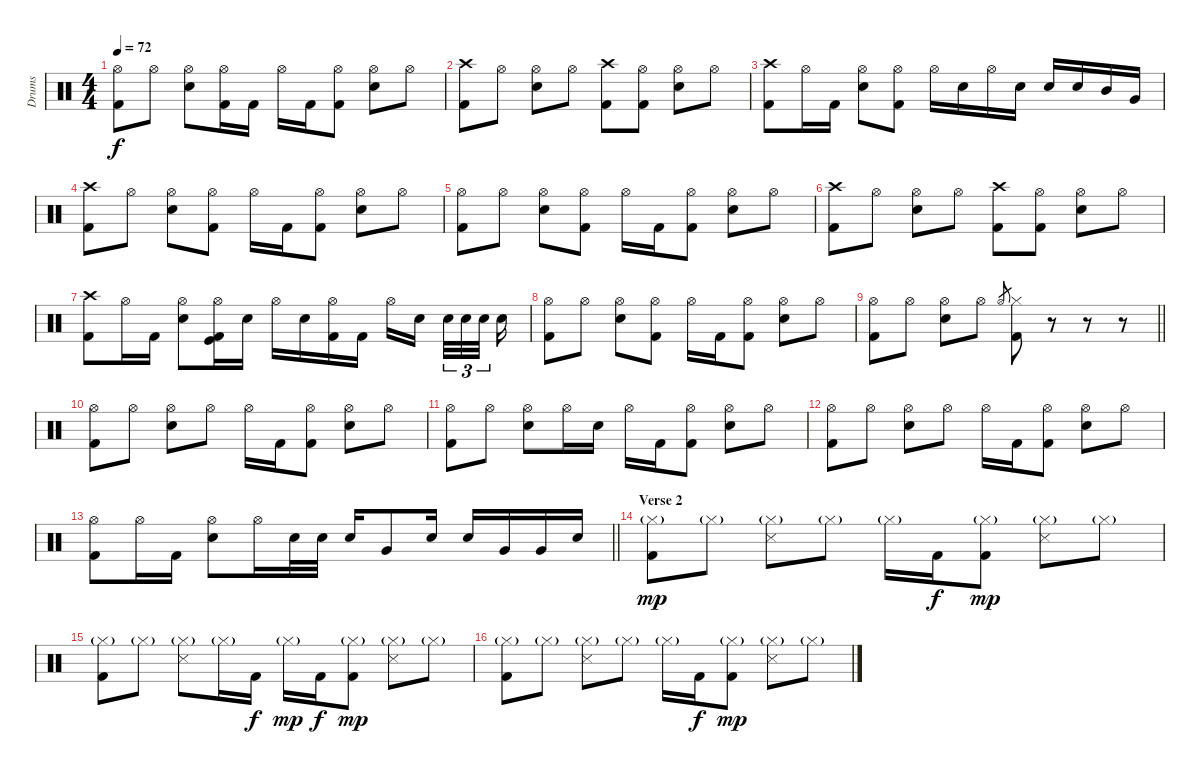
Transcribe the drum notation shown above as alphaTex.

\track ("Drums" "Drums") {instrument percussion}
\staff {score}
\articulation defaults
\ts (4 4)
\tempo 72
\clef neutral
\ks c
("Hi-Hat (open)" "Kick (hit) 2").8{dy f} "Hi-Hat (open)".8 ("Hi-Hat (open)" "Snare (hit) 2").8 ("Hi-Hat (open)" "Kick (hit) 2").16 "Kick (hit) 2".16 "Hi-Hat (open)".16 "Kick (hit) 2".16 ("Hi-Hat (open)" "Kick (hit) 2").8 ("Hi-Hat (open)" "Snare (hit) 2").8 "Hi-Hat (open)".8 |
("Crash high (hit)" "Kick (hit) 2").8 "Hi-Hat (open)".8 ("Hi-Hat (open)" "Snare (hit) 2").8 "Hi-Hat (open)".8 ("Crash high (hit)" "Kick (hit) 2").8 ("Hi-Hat (open)" "Kick (hit) 2").8 ("Hi-Hat (open)" "Snare (hit) 2").8 "Hi-Hat (open)".8 |
("Crash high (hit)" "Kick (hit) 2").8 "Hi-Hat (open)".16 "Kick (hit) 2".16 ("Hi-Hat (open)" "Snare (hit) 2").8 ("Hi-Hat (open)" "Kick (hit) 2").8 "Hi-Hat (open)".16 "Snare (hit) 2".16 "Hi-Hat (open)".16 "Snare (hit) 2".16 "Snare (hit) 2".16 "Snare (hit) 2".16 "Mid Tom (hit)".16 "Very Low Tom (hit)".16 |
("Crash high (hit)" "Kick (hit) 2").8 "Hi-Hat (open)".8 ("Hi-Hat (open)" "Snare (hit) 2").8 ("Hi-Hat (open)" "Kick (hit) 2").8 "Hi-Hat (open)".16 "Kick (hit) 2".16 ("Hi-Hat (open)" "Kick (hit) 2").8 ("Hi-Hat (open)" "Snare (hit) 2").8 "Hi-Hat (open)".8 |
("Hi-Hat (open)" "Kick (hit) 2").8 "Hi-Hat (open)".8 ("Hi-Hat (open)" "Snare (hit) 2").8 ("Hi-Hat (open)" "Kick (hit) 2").8 "Hi-Hat (open)".16 "Kick (hit) 2".16 ("Hi-Hat (open)" "Kick (hit) 2").8 ("Hi-Hat (open)" "Snare (hit) 2").8 "Hi-Hat (open)".8 |
("Crash high (hit)" "Kick (hit) 2").8 "Hi-Hat (open)".8 ("Hi-Hat (open)" "Snare (hit) 2").8 "Hi-Hat (open)".8 ("Crash high (hit)" "Kick (hit) 2").8 ("Hi-Hat (open)" "Kick (hit) 2").8 ("Hi-Hat (open)" "Snare (hit) 2").8 "Hi-Hat (open)".8 |
("Crash high (hit)" "Kick (hit) 2").8 "Hi-Hat (open)".16 "Kick (hit) 2".16 ("Hi-Hat (open)" "Snare (hit) 2").8 ("Hi-Hat (open)" "Kick (hit)" "Kick (hit) 2").16 "Snare (hit) 2".16 "Hi-Hat (open)".16 "Snare (hit) 2".16 ("Hi-Hat (open)" "Kick (hit) 2").16 "Kick (hit) 2".16 "Hi-Hat (open)".16 "Snare (hit) 2".16{beam splitsecondary} "Snare (hit) 2".32{tu (3 2)} "Snare (hit) 2".32{tu (3 2)} "Snare (hit) 2".32{tu (3 2) beam splitsecondary} "Snare (hit) 2".16 |
("Hi-Hat (open)" "Kick (hit) 2").8 "Hi-Hat (open)".8 ("Hi-Hat (open)" "Snare (hit) 2").8 ("Hi-Hat (open)" "Kick (hit) 2").8 "Hi-Hat (open)".16 "Kick (hit) 2".16 ("Hi-Hat (open)" "Kick (hit) 2").8 ("Hi-Hat (open)" "Snare (hit) 2").8 "Hi-Hat (open)".8 |
\barLineRight lightlight
("Hi-Hat (open)" "Kick (hit) 2").8 "Hi-Hat (open)".8 ("Hi-Hat (open)" "Snare (hit) 2").8 "Hi-Hat (open)".8 "Hi-Hat (open)".8{gr} ("Hi-Hat (closed)" "Kick (hit) 2").8 r.8 r.8 r.8 |
\section ("" "")
("Hi-Hat (open)" "Kick (hit) 2").8 "Hi-Hat (open)".8 ("Hi-Hat (open)" "Snare (hit) 2").8 "Hi-Hat (open)".8 "Hi-Hat (open)".16 "Kick (hit) 2".16 ("Hi-Hat (open)" "Kick (hit) 2").8 ("Hi-Hat (open)" "Snare (hit) 2").8 "Hi-Hat (open)".8 |
("Hi-Hat (open)" "Kick (hit) 2").8 "Hi-Hat (open)".8 ("Hi-Hat (open)" "Snare (hit) 2").8 "Hi-Hat (open)".16 "Snare (hit) 2".16 "Hi-Hat (open)".16 "Kick (hit) 2".16 ("Hi-Hat (open)" "Kick (hit) 2").8 ("Hi-Hat (open)" "Snare (hit) 2").8 "Hi-Hat (open)".8 |
("Hi-Hat (open)" "Kick (hit) 2").8 "Hi-Hat (open)".8 ("Hi-Hat (open)" "Snare (hit) 2").8 "Hi-Hat (open)".8 "Hi-Hat (open)".16 "Kick (hit) 2".16 ("Hi-Hat (open)" "Kick (hit) 2").8 ("Hi-Hat (open)" "Snare (hit) 2").8 "Hi-Hat (open)".8 |
\barLineRight lightlight
("Hi-Hat (open)" "Kick (hit) 2").8 "Hi-Hat (open)".16 "Kick (hit) 2".16 ("Hi-Hat (open)" "Snare (hit) 2").8 "Hi-Hat (open)".16 "Snare (hit) 2".32 "Snare (hit) 2".32 "Snare (hit) 2".16 "Very Low Tom (hit)".8 "Snare (hit) 2".16 "Snare (hit) 2".16 "Very Low Tom (hit)".16 "Very Low Tom (hit)".16 "Snare (hit) 2".16 |
\section ("" "Verse 2")
("Hi-Hat (closed)"{g} "Kick (hit) 2").8{dy mp} "Hi-Hat (closed)"{g}.8 ("Hi-Hat (closed)"{g} "Snare (side stick) 3").8 "Hi-Hat (closed)"{g}.8 "Hi-Hat (closed)"{g}.16 "Kick (hit) 2".16{dy f} ("Hi-Hat (closed)"{g} "Kick (hit) 2").8{dy mp} ("Hi-Hat (closed)"{g} "Snare (side stick) 3").8 "Hi-Hat (closed)"{g}.8 |
("Hi-Hat (closed)"{g} "Kick (hit) 2").8 "Hi-Hat (closed)"{g}.8 ("Hi-Hat (closed)"{g} "Snare (side stick) 3").8 "Hi-Hat (closed)"{g}.16 "Kick (hit) 2".16{dy f} "Hi-Hat (closed)"{g}.16{dy mp} "Kick (hit) 2".16{dy f} ("Hi-Hat (closed)"{g} "Kick (hit) 2").8{dy mp} ("Hi-Hat (closed)"{g} "Snare (side stick) 3").8 "Hi-Hat (closed)"{g}.8 |
("Hi-Hat (closed)"{g} "Kick (hit) 2").8 "Hi-Hat (closed)"{g}.8 ("Hi-Hat (closed)"{g} "Snare (side stick) 3").8 "Hi-Hat (closed)"{g}.8 "Hi-Hat (closed)"{g}.16 "Kick (hit) 2".16{dy f} ("Hi-Hat (closed)"{g} "Kick (hit) 2").8{dy mp} ("Hi-Hat (closed)"{g} "Snare (side stick) 3").8 "Hi-Hat (closed)"{g}.8
